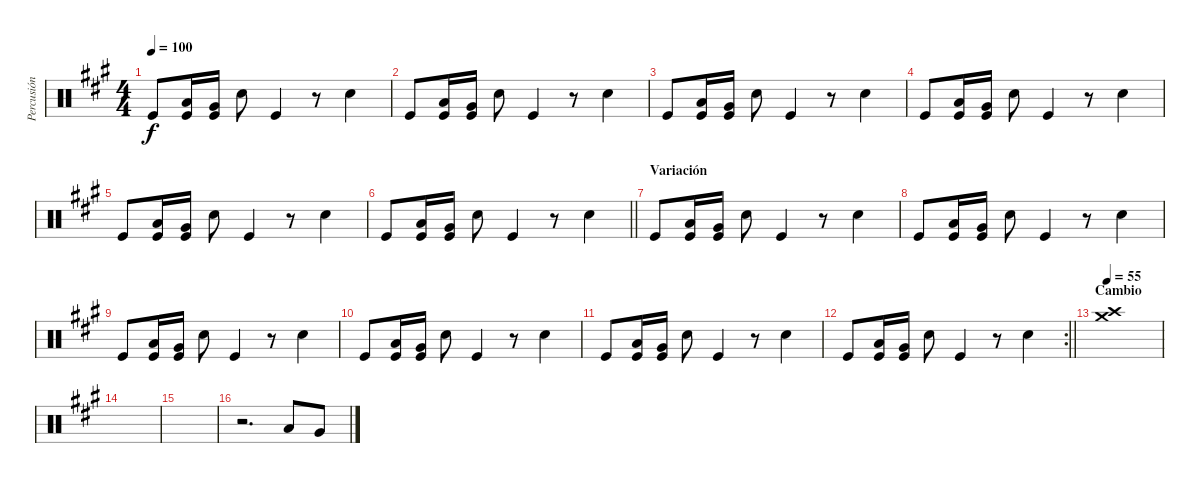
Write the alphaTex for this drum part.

\track ("Percusión" "Percusión") {instrument percussion}
\staff {score}
\articulation defaults
\ts (4 4)
\tempo 100
\clef neutral
\ks f#minor "Kick (hit)".8{dy f}
("Low Tom (hit)" "Kick (hit)").16 ("Very Low Tom (hit)" "Kick (hit)").16 "Electric Snare (hit)".8 "Kick (hit)".4 r.8 "Electric Snare (hit)".4 |
"Kick (hit)".8 ("Low Tom (hit)" "Kick (hit)").16 ("Very Low Tom (hit)" "Kick (hit)").16 "Electric Snare (hit)".8 "Kick (hit)".4 r.8 "Electric Snare (hit)".4 |
"Kick (hit)".8 ("Low Tom (hit)" "Kick (hit)").16 ("Very Low Tom (hit)" "Kick (hit)").16 "Electric Snare (hit)".8 "Kick (hit)".4 r.8 "Electric Snare (hit)".4 |
"Kick (hit)".8 ("Low Tom (hit)" "Kick (hit)").16 ("Very Low Tom (hit)" "Kick (hit)").16 "Electric Snare (hit)".8 "Kick (hit)".4 r.8 "Electric Snare (hit)".4 |
"Kick (hit)".8 ("Low Tom (hit)" "Kick (hit)").16 ("Very Low Tom (hit)" "Kick (hit)").16 "Electric Snare (hit)".8 "Kick (hit)".4 r.8 "Electric Snare (hit)".4 |
\barLineRight lightlight "Kick (hit)".8
("Low Tom (hit)" "Kick (hit)").16 ("Very Low Tom (hit)" "Kick (hit)").16 "Electric Snare (hit)".8 "Kick (hit)".4 r.8 "Electric Snare (hit)".4 |
\section ("" "Variación")
"Kick (hit)".8 ("Low Tom (hit)" "Kick (hit)").16 ("Very Low Tom (hit)" "Kick (hit)").16 "Electric Snare (hit)".8 "Kick (hit)".4 r.8 "Electric Snare (hit)".4 |
"Kick (hit)".8 ("Low Tom (hit)" "Kick (hit)").16 ("Very Low Tom (hit)" "Kick (hit)").16 "Electric Snare (hit)".8 "Kick (hit)".4 r.8 "Electric Snare (hit)".4 |
"Kick (hit)".8 ("Low Tom (hit)" "Kick (hit)").16 ("Very Low Tom (hit)" "Kick (hit)").16 "Electric Snare (hit)".8 "Kick (hit)".4 r.8 "Electric Snare (hit)".4 |
"Kick (hit)".8 ("Low Tom (hit)" "Kick (hit)").16 ("Very Low Tom (hit)" "Kick (hit)").16 "Electric Snare (hit)".8 "Kick (hit)".4 r.8 "Electric Snare (hit)".4 |
"Kick (hit)".8 ("Low Tom (hit)" "Kick (hit)").16 ("Very Low Tom (hit)" "Kick (hit)").16 "Electric Snare (hit)".8 "Kick (hit)".4 r.8 "Electric Snare (hit)".4 |
\rc 2
\barLineRight lightlight "Kick (hit)".8
("Low Tom (hit)" "Kick (hit)").16 ("Very Low Tom (hit)" "Kick (hit)").16 "Electric Snare (hit)".8 "Kick (hit)".4 r.8 "Electric Snare (hit)".4 |
\section ("" "Cambio")
\tempo 55
("Crash medium (hit)" "Crash high (hit)").1 |
|
|
r.2{d} "Low Tom (hit)".8 "Very Low Tom (hit)".8
